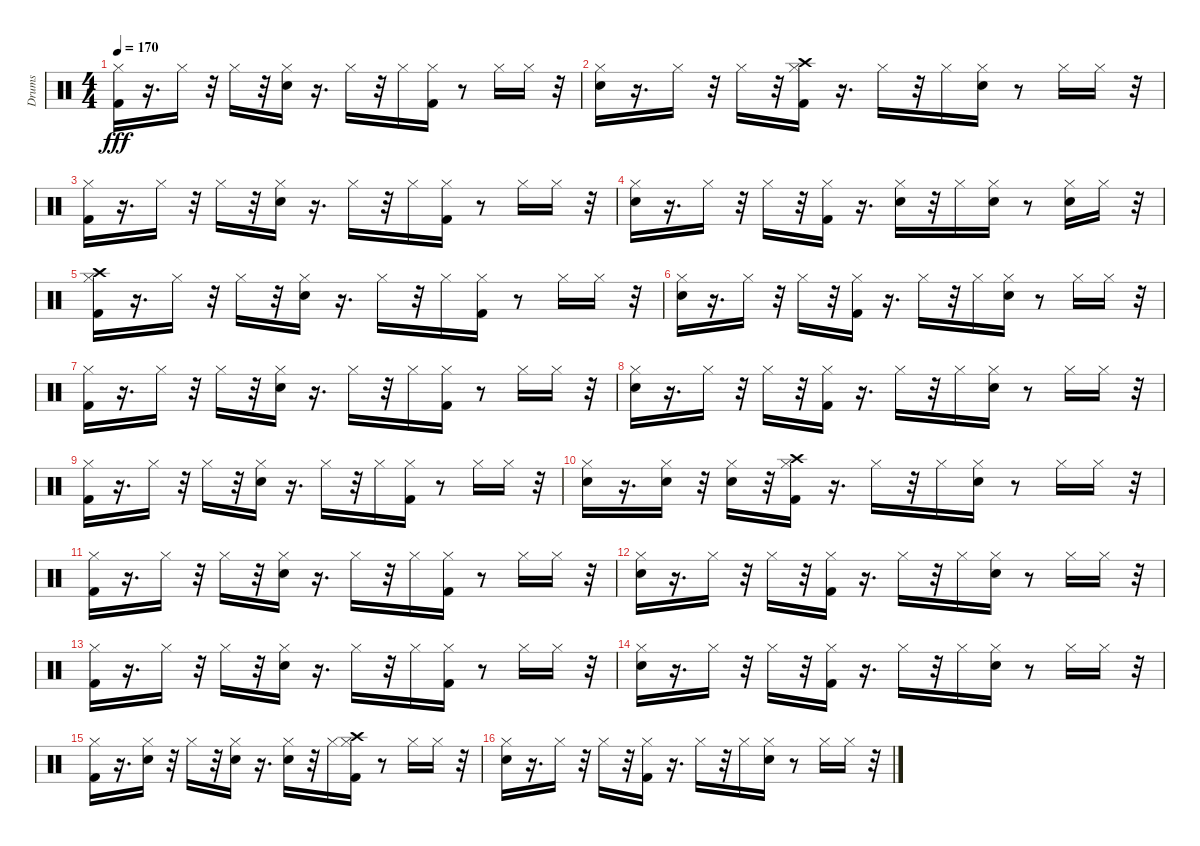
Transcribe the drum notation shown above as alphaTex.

\track ("Drums" "Drums") {instrument percussion}
\staff {score}
\articulation defaults
\ts (4 4)
\tempo 170
\clef neutral
\ks c
("Kick (hit) 2" "Hi-Hat (closed)").16{dy fff} r.16{d} "Hi-Hat (closed)".16 r.32 "Hi-Hat (closed)".16 r.32 ("Snare (hit) 2" "Hi-Hat (closed)").16 r.16{d} "Hi-Hat (closed)".16 r.32 "Hi-Hat (closed)".16 ("Kick (hit) 2" "Hi-Hat (closed)").16 r.8 "Hi-Hat (closed)".16 "Hi-Hat (closed)".16 r.32 |
("Snare (hit) 2" "Hi-Hat (closed)").16 r.16{d} "Hi-Hat (closed)".16 r.32 "Hi-Hat (closed)".16 r.32 ("Kick (hit) 2" "Hi-Hat (closed)" "Crash high (hit)").16 r.16{d} "Hi-Hat (closed)".16 r.32 "Hi-Hat (closed)".16 ("Snare (hit) 2" "Hi-Hat (closed)").16 r.8 "Hi-Hat (closed)".16 "Hi-Hat (closed)".16 r.32 |
("Kick (hit) 2" "Hi-Hat (closed)").16 r.16{d} "Hi-Hat (closed)".16 r.32 "Hi-Hat (closed)".16 r.32 ("Snare (hit) 2" "Hi-Hat (closed)").16 r.16{d} "Hi-Hat (closed)".16 r.32 "Hi-Hat (closed)".16 ("Kick (hit) 2" "Hi-Hat (closed)").16 r.8 "Hi-Hat (closed)".16 "Hi-Hat (closed)".16 r.32 |
("Snare (hit) 2" "Hi-Hat (closed)").16 r.16{d} "Hi-Hat (closed)".16 r.32 "Hi-Hat (closed)".16 r.32 ("Kick (hit) 2" "Hi-Hat (closed)").16 r.16{d} ("Hi-Hat (closed)" "Snare (hit) 2").16 r.32 "Hi-Hat (closed)".16 ("Snare (hit) 2" "Hi-Hat (closed)").16 r.8 ("Hi-Hat (closed)" "Snare (hit) 2").16 "Hi-Hat (closed)".16 r.32 |
("Kick (hit) 2" "Hi-Hat (closed)" "Crash high (hit)").16 r.16{d} "Hi-Hat (closed)".16 r.32 "Hi-Hat (closed)".16 r.32 ("Snare (hit) 2" "Hi-Hat (closed)").16 r.16{d} "Hi-Hat (closed)".16 r.32 "Hi-Hat (closed)".16 ("Kick (hit) 2" "Hi-Hat (closed)").16 r.8 "Hi-Hat (closed)".16 "Hi-Hat (closed)".16 r.32 |
("Snare (hit) 2" "Hi-Hat (closed)").16 r.16{d} "Hi-Hat (closed)".16 r.32 "Hi-Hat (closed)".16 r.32 ("Kick (hit) 2" "Hi-Hat (closed)").16 r.16{d} "Hi-Hat (closed)".16 r.32 "Hi-Hat (closed)".16 ("Snare (hit) 2" "Hi-Hat (closed)").16 r.8 "Hi-Hat (closed)".16 "Hi-Hat (closed)".16 r.32 |
("Kick (hit) 2" "Hi-Hat (closed)").16 r.16{d} "Hi-Hat (closed)".16 r.32 "Hi-Hat (closed)".16 r.32 ("Snare (hit) 2" "Hi-Hat (closed)").16 r.16{d} "Hi-Hat (closed)".16 r.32 "Hi-Hat (closed)".16 ("Kick (hit) 2" "Hi-Hat (closed)").16 r.8 "Hi-Hat (closed)".16 "Hi-Hat (closed)".16 r.32 |
("Snare (hit) 2" "Hi-Hat (closed)").16 r.16{d} "Hi-Hat (closed)".16 r.32 "Hi-Hat (closed)".16 r.32 ("Kick (hit) 2" "Hi-Hat (closed)").16 r.16{d} "Hi-Hat (closed)".16 r.32 "Hi-Hat (closed)".16 ("Snare (hit) 2" "Hi-Hat (closed)").16 r.8 "Hi-Hat (closed)".16 "Hi-Hat (closed)".16 r.32 |
("Kick (hit) 2" "Hi-Hat (closed)").16 r.16{d} "Hi-Hat (closed)".16 r.32 "Hi-Hat (closed)".16 r.32 ("Snare (hit) 2" "Hi-Hat (closed)").16 r.16{d} "Hi-Hat (closed)".16 r.32 "Hi-Hat (closed)".16 ("Kick (hit) 2" "Hi-Hat (closed)").16 r.8 "Hi-Hat (closed)".16 "Hi-Hat (closed)".16 r.32 |
("Snare (hit) 2" "Hi-Hat (closed)").16 r.16{d} ("Hi-Hat (closed)" "Snare (hit) 2").16 r.32 ("Hi-Hat (closed)" "Snare (hit) 2").16 r.32 ("Kick (hit) 2" "Hi-Hat (closed)" "Crash high (hit)").16 r.16{d} "Hi-Hat (closed)".16 r.32 "Hi-Hat (closed)".16 ("Snare (hit) 2" "Hi-Hat (closed)").16 r.8 "Hi-Hat (closed)".16 "Hi-Hat (closed)".16 r.32 |
("Kick (hit) 2" "Hi-Hat (closed)").16 r.16{d} "Hi-Hat (closed)".16 r.32 "Hi-Hat (closed)".16 r.32 ("Snare (hit) 2" "Hi-Hat (closed)").16 r.16{d} "Hi-Hat (closed)".16 r.32 "Hi-Hat (closed)".16 ("Kick (hit) 2" "Hi-Hat (closed)").16 r.8 "Hi-Hat (closed)".16 "Hi-Hat (closed)".16 r.32 |
("Snare (hit) 2" "Hi-Hat (closed)").16 r.16{d} "Hi-Hat (closed)".16 r.32 "Hi-Hat (closed)".16 r.32 ("Kick (hit) 2" "Hi-Hat (closed)").16 r.16{d} "Hi-Hat (closed)".16 r.32 "Hi-Hat (closed)".16 ("Snare (hit) 2" "Hi-Hat (closed)").16 r.8 "Hi-Hat (closed)".16 "Hi-Hat (closed)".16 r.32 |
("Kick (hit) 2" "Hi-Hat (closed)").16 r.16{d} "Hi-Hat (closed)".16 r.32 "Hi-Hat (closed)".16 r.32 ("Snare (hit) 2" "Hi-Hat (closed)").16 r.16{d} "Hi-Hat (closed)".16 r.32 "Hi-Hat (closed)".16 ("Kick (hit) 2" "Hi-Hat (closed)").16 r.8 "Hi-Hat (closed)".16 "Hi-Hat (closed)".16 r.32 |
("Snare (hit) 2" "Hi-Hat (closed)").16 r.16{d} "Hi-Hat (closed)".16 r.32 "Hi-Hat (closed)".16 r.32 ("Kick (hit) 2" "Hi-Hat (closed)").16 r.16{d} "Hi-Hat (closed)".16 r.32 "Hi-Hat (closed)".16 ("Snare (hit) 2" "Hi-Hat (closed)").16 r.8 "Hi-Hat (closed)".16 "Hi-Hat (closed)".16 r.32 |
("Kick (hit) 2" "Hi-Hat (closed)").16 r.16{d} ("Hi-Hat (closed)" "Snare (hit) 2").16 r.32 "Hi-Hat (closed)".16 r.32 ("Snare (hit) 2" "Hi-Hat (closed)").16 r.16{d} ("Hi-Hat (closed)" "Snare (hit) 2").16 r.32 "Hi-Hat (closed)".16 ("Kick (hit) 2" "Hi-Hat (closed)" "Crash high (hit)").16 r.8 "Hi-Hat (closed)".16 "Hi-Hat (closed)".16 r.32 |
("Snare (hit) 2" "Hi-Hat (closed)").16 r.16{d} "Hi-Hat (closed)".16 r.32 "Hi-Hat (closed)".16 r.32 ("Kick (hit) 2" "Hi-Hat (closed)").16 r.16{d} "Hi-Hat (closed)".16 r.32 "Hi-Hat (closed)".16 ("Snare (hit) 2" "Hi-Hat (closed)").16 r.8 "Hi-Hat (closed)".16 "Hi-Hat (closed)".16 r.32
